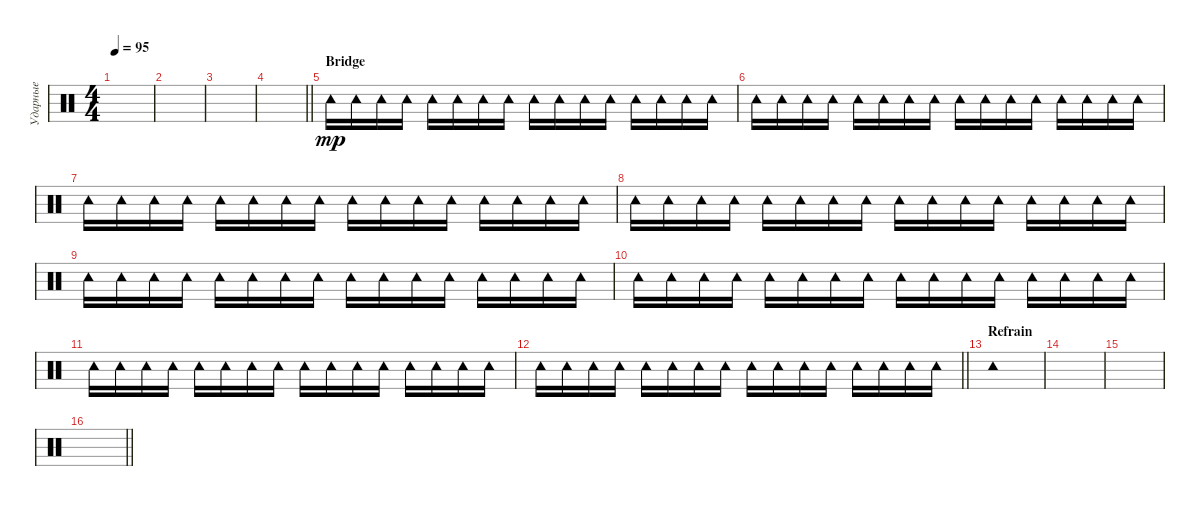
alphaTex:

\track ("Ударные" "Ударные") {instrument percussion}
\staff {score}
\articulation defaults
\ts (4 4)
\tempo 95
\clef neutral
\ks c
|
|
|
\barLineRight lightlight
|
\section ("" "Bridge")
"Tambourine (hit)".16{dy mp} "Tambourine (hit)".16 "Tambourine (hit)".16 "Tambourine (hit)".16 "Tambourine (hit)".16 "Tambourine (hit)".16 "Tambourine (hit)".16 "Tambourine (hit)".16 "Tambourine (hit)".16 "Tambourine (hit)".16 "Tambourine (hit)".16 "Tambourine (hit)".16 "Tambourine (hit)".16 "Tambourine (hit)".16 "Tambourine (hit)".16 "Tambourine (hit)".16 |
"Tambourine (hit)".16 "Tambourine (hit)".16 "Tambourine (hit)".16 "Tambourine (hit)".16 "Tambourine (hit)".16 "Tambourine (hit)".16 "Tambourine (hit)".16 "Tambourine (hit)".16 "Tambourine (hit)".16 "Tambourine (hit)".16 "Tambourine (hit)".16 "Tambourine (hit)".16 "Tambourine (hit)".16 "Tambourine (hit)".16 "Tambourine (hit)".16 "Tambourine (hit)".16 |
"Tambourine (hit)".16 "Tambourine (hit)".16 "Tambourine (hit)".16 "Tambourine (hit)".16 "Tambourine (hit)".16 "Tambourine (hit)".16 "Tambourine (hit)".16 "Tambourine (hit)".16 "Tambourine (hit)".16 "Tambourine (hit)".16 "Tambourine (hit)".16 "Tambourine (hit)".16 "Tambourine (hit)".16 "Tambourine (hit)".16 "Tambourine (hit)".16 "Tambourine (hit)".16 |
"Tambourine (hit)".16 "Tambourine (hit)".16 "Tambourine (hit)".16 "Tambourine (hit)".16 "Tambourine (hit)".16 "Tambourine (hit)".16 "Tambourine (hit)".16 "Tambourine (hit)".16 "Tambourine (hit)".16 "Tambourine (hit)".16 "Tambourine (hit)".16 "Tambourine (hit)".16 "Tambourine (hit)".16 "Tambourine (hit)".16 "Tambourine (hit)".16 "Tambourine (hit)".16 |
"Tambourine (hit)".16 "Tambourine (hit)".16 "Tambourine (hit)".16 "Tambourine (hit)".16 "Tambourine (hit)".16 "Tambourine (hit)".16 "Tambourine (hit)".16 "Tambourine (hit)".16 "Tambourine (hit)".16 "Tambourine (hit)".16 "Tambourine (hit)".16 "Tambourine (hit)".16 "Tambourine (hit)".16 "Tambourine (hit)".16 "Tambourine (hit)".16 "Tambourine (hit)".16 |
"Tambourine (hit)".16 "Tambourine (hit)".16 "Tambourine (hit)".16 "Tambourine (hit)".16 "Tambourine (hit)".16 "Tambourine (hit)".16 "Tambourine (hit)".16 "Tambourine (hit)".16 "Tambourine (hit)".16 "Tambourine (hit)".16 "Tambourine (hit)".16 "Tambourine (hit)".16 "Tambourine (hit)".16 "Tambourine (hit)".16 "Tambourine (hit)".16 "Tambourine (hit)".16 |
"Tambourine (hit)".16 "Tambourine (hit)".16 "Tambourine (hit)".16 "Tambourine (hit)".16 "Tambourine (hit)".16 "Tambourine (hit)".16 "Tambourine (hit)".16 "Tambourine (hit)".16 "Tambourine (hit)".16 "Tambourine (hit)".16 "Tambourine (hit)".16 "Tambourine (hit)".16 "Tambourine (hit)".16 "Tambourine (hit)".16 "Tambourine (hit)".16 "Tambourine (hit)".16 |
\barLineRight lightlight "Tambourine (hit)".16 "Tambourine (hit)".16 "Tambourine (hit)".16 "Tambourine (hit)".16 "Tambourine (hit)".16 "Tambourine (hit)".16 "Tambourine (hit)".16 "Tambourine (hit)".16 "Tambourine (hit)".16 "Tambourine (hit)".16 "Tambourine (hit)".16 "Tambourine (hit)".16 "Tambourine (hit)".16 "Tambourine (hit)".16 "Tambourine (hit)".16 "Tambourine (hit)".16
|
\section ("" "Refrain")
"Tambourine (hit)".1 |
|
|
\barLineRight lightlight
